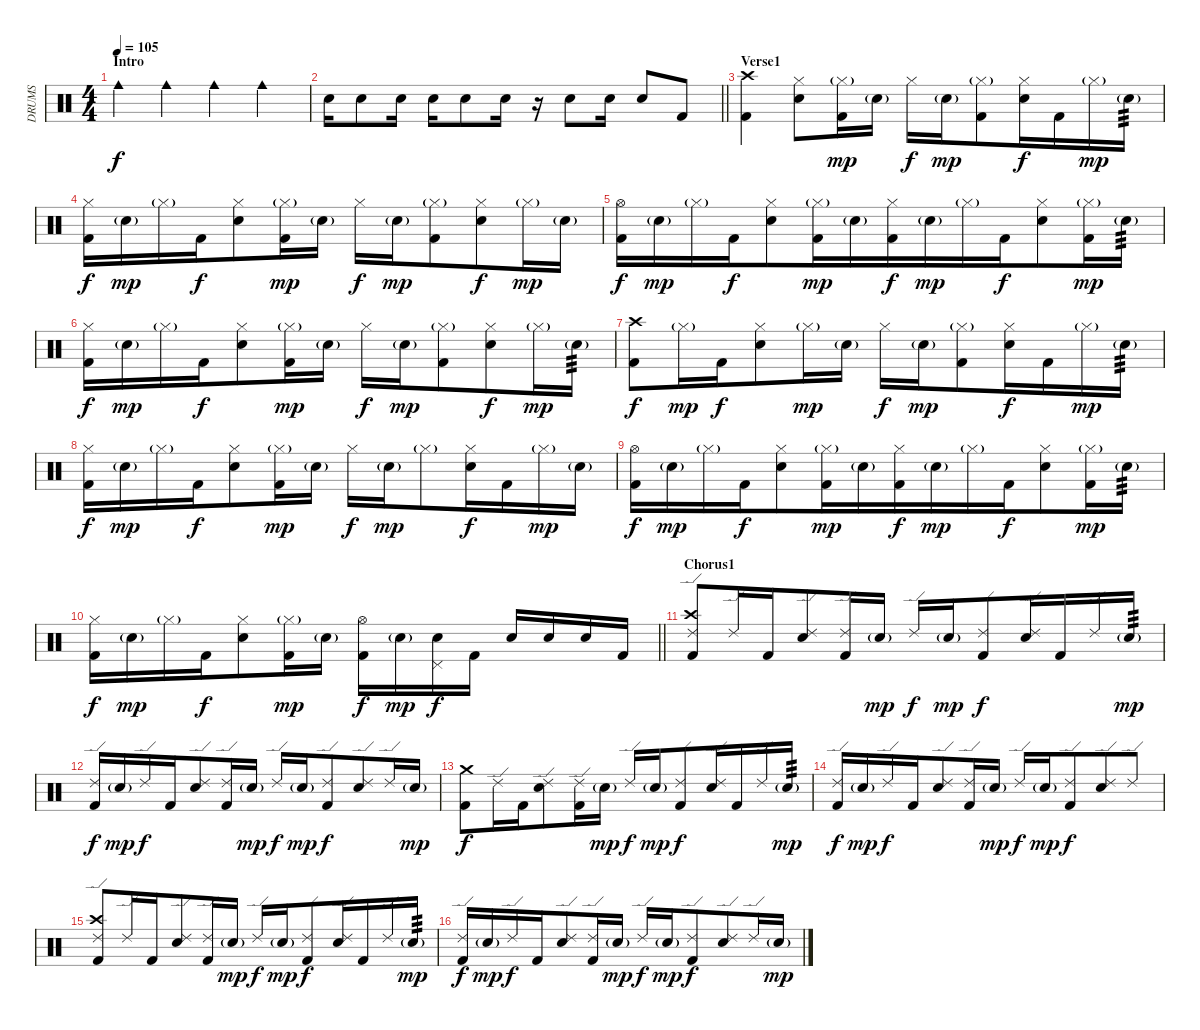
\track ("DRUMS" "DRUMS") {instrument percussion bank 148}
\staff {score}
\articulation defaults
\ts (4 4)
\section ("" "Intro")
\tempo 105
\clef neutral
\ks c "Cowbell medium (hit)".4{dy f beam merge} "Cowbell medium (hit)".4{beam merge} "Cowbell medium (hit)".4{beam merge} "Cowbell medium (hit)".4
|
\barLineRight lightlight "Electric Snare (hit)".16 "Electric Snare (hit)".8 "Electric Snare (hit)".16 "Electric Snare (hit)".16 "Electric Snare (hit)".8 "Electric Snare (hit)".16
r.16 "Electric Snare (hit)".8 "Electric Snare (hit)".16 "Electric Snare (hit)".8{beam merge} "Kick (hit) 2".8 |
\section ("" "Verse1")
("Crash high (hit)" "Kick (hit) 2").4{beam merge} ("Hi-Hat (closed)" "Electric Snare (hit)").8 ("Hi-Hat (closed)"{g} "Kick (hit) 2").16{dy mp beam merge} "Electric Snare (hit)"{g}.16 "Hi-Hat (closed)".16{dy f} "Electric Snare (hit)"{g}.16{dy mp beam merge} ("Hi-Hat (closed)"{g} "Kick (hit) 2").8{beam merge} ("Hi-Hat (closed)" "Electric Snare (hit)").16{dy f} "Kick (hit) 2".16 "Hi-Hat (closed)"{g}.16{dy mp} "Electric Snare (hit)"{g}.16{tp 3} |
("Hi-Hat (closed)" "Kick (hit) 2").16{dy f} "Electric Snare (hit)"{g}.16{dy mp} "Hi-Hat (closed)"{g}.16 "Kick (hit) 2".16{dy f beam merge} ("Hi-Hat (closed)" "Electric Snare (hit)").8 ("Hi-Hat (closed)"{g} "Kick (hit) 2").16{dy mp} "Electric Snare (hit)"{g}.16 "Hi-Hat (closed)".16{dy f beam merge} "Electric Snare (hit)"{g}.16{dy mp beam merge} ("Hi-Hat (closed)"{g} "Kick (hit) 2").8{beam merge} ("Hi-Hat (closed)" "Electric Snare (hit)").8{dy f} "Hi-Hat (closed)"{g}.16{dy mp} "Electric Snare (hit)"{g}.16 |
("Hi-Hat (open)" "Kick (hit) 2").16{dy f} "Electric Snare (hit)"{g}.16{dy mp} "Hi-Hat (closed)"{g}.16 "Kick (hit) 2".16{dy f beam merge} ("Hi-Hat (closed)" "Electric Snare (hit)").8 ("Hi-Hat (closed)"{g} "Kick (hit) 2").16{dy mp} "Electric Snare (hit)"{g}.16{beam merge} ("Hi-Hat (closed)" "Kick (hit) 2").16{dy f} "Electric Snare (hit)"{g}.16{dy mp} "Hi-Hat (closed)"{g}.16 "Kick (hit) 2".16{dy f beam merge} ("Hi-Hat (closed)" "Electric Snare (hit)").8 ("Hi-Hat (closed)"{g} "Kick (hit) 2").16{dy mp} "Electric Snare (hit)"{g}.16{tp 3} |
("Hi-Hat (closed)" "Kick (hit) 2").16{dy f} "Electric Snare (hit)"{g}.16{dy mp} "Hi-Hat (closed)"{g}.16 "Kick (hit) 2".16{dy f beam merge} ("Hi-Hat (closed)" "Electric Snare (hit)").8 ("Hi-Hat (closed)"{g} "Kick (hit) 2").16{dy mp} "Electric Snare (hit)"{g}.16 "Hi-Hat (closed)".16{dy f beam merge} "Electric Snare (hit)"{g}.16{dy mp beam merge} ("Hi-Hat (closed)"{g} "Kick (hit) 2").8{beam merge} ("Hi-Hat (closed)" "Electric Snare (hit)").8{dy f} "Hi-Hat (closed)"{g}.16{dy mp} "Electric Snare (hit)"{g}.16{tp 3} |
("Crash high (hit)" "Kick (hit) 2").8{dy f beam merge} "Hi-Hat (closed)"{g}.16{dy mp} "Kick (hit) 2".16{dy f beam merge} ("Hi-Hat (closed)" "Electric Snare (hit)").8 "Hi-Hat (closed)"{g}.16{dy mp beam merge} "Electric Snare (hit)"{g}.16 "Hi-Hat (closed)".16{dy f} "Electric Snare (hit)"{g}.16{dy mp beam merge} ("Hi-Hat (closed)"{g} "Kick (hit) 2").8{beam merge} ("Hi-Hat (closed)" "Electric Snare (hit)").16{dy f} "Kick (hit) 2".16 "Hi-Hat (closed)"{g}.16{dy mp} "Electric Snare (hit)"{g}.16{tp 3} |
("Hi-Hat (closed)" "Kick (hit) 2").16{dy f} "Electric Snare (hit)"{g}.16{dy mp} "Hi-Hat (closed)"{g}.16 "Kick (hit) 2".16{dy f beam merge} ("Hi-Hat (closed)" "Electric Snare (hit)").8 ("Hi-Hat (closed)"{g} "Kick (hit) 2").16{dy mp} "Electric Snare (hit)"{g}.16 "Hi-Hat (closed)".16{dy f beam merge} "Electric Snare (hit)"{g}.16{dy mp beam merge} "Hi-Hat (closed)"{g}.8{beam merge} ("Hi-Hat (closed)" "Electric Snare (hit)").16{dy f} "Kick (hit) 2".16 "Hi-Hat (closed)"{g}.16{dy mp} "Electric Snare (hit)"{g}.16 |
("Hi-Hat (open)" "Kick (hit) 2").16{dy f} "Electric Snare (hit)"{g}.16{dy mp} "Hi-Hat (closed)"{g}.16 "Kick (hit) 2".16{dy f beam merge} ("Hi-Hat (closed)" "Electric Snare (hit)").8 ("Hi-Hat (closed)"{g} "Kick (hit) 2").16{dy mp} "Electric Snare (hit)"{g}.16{beam merge} ("Hi-Hat (closed)" "Kick (hit) 2").16{dy f} "Electric Snare (hit)"{g}.16{dy mp} "Hi-Hat (closed)"{g}.16 "Kick (hit) 2".16{dy f beam merge} ("Hi-Hat (closed)" "Electric Snare (hit)").8 ("Hi-Hat (closed)"{g} "Kick (hit) 2").16{dy mp} "Electric Snare (hit)"{g}.16{tp 3} |
\barLineRight lightlight
("Hi-Hat (closed)" "Kick (hit) 2").16{dy f} "Electric Snare (hit)"{g}.16{dy mp} "Hi-Hat (closed)"{g}.16 "Kick (hit) 2".16{dy f beam merge} ("Hi-Hat (closed)" "Electric Snare (hit)").8 ("Hi-Hat (closed)"{g} "Kick (hit) 2").16{dy mp} "Electric Snare (hit)"{g}.16 ("Hi-Hat (open)" "Kick (hit) 2").16{dy f beam merge} "Electric Snare (hit)"{g}.16{dy mp beam merge} ("Pedal Hi-Hat (hit)" "Electric Snare (hit)").16{dy f beam merge} "Kick (hit) 2".16 "Electric Snare (hit)".16 "Electric Snare (hit)".16 "Electric Snare (hit)".16 "Kick (hit) 2".16 |
\section ("" "Chorus1")
("Ride (edge) 2" "Crash high (hit)" "Kick (hit) 2").8{beam merge} "Ride (edge) 2".16 "Kick (hit) 2".16{beam merge} ("Ride (edge) 2" "Electric Snare (hit)").8 ("Ride (edge) 2" "Kick (hit) 2").16{beam merge} "Electric Snare (hit)"{g}.16{dy mp} "Ride (edge) 2".16{dy f} "Electric Snare (hit)"{g}.16{dy mp beam merge} ("Ride (edge) 2" "Kick (hit) 2").8{dy f beam merge} ("Ride (edge) 2" "Electric Snare (hit)").16 "Kick (hit) 2".16 "Ride (edge) 2".16 "Electric Snare (hit)"{g}.16{tp 3 dy mp} |
("Ride (edge) 2" "Kick (hit) 2").16{dy f} "Electric Snare (hit)"{g}.16{dy mp} "Ride (edge) 2".16{dy f} "Kick (hit) 2".16{beam merge} ("Ride (edge) 2" "Electric Snare (hit)").8 ("Ride (edge) 2" "Kick (hit) 2").16 "Electric Snare (hit)"{g}.16{dy mp} "Ride (edge) 2".16{dy f beam merge} "Electric Snare (hit)"{g}.16{dy mp beam merge} ("Ride (edge) 2" "Kick (hit) 2").8{dy f beam merge} ("Ride (edge) 2" "Electric Snare (hit)").8 "Ride (edge) 2".16 "Electric Snare (hit)"{g}.16{dy mp} |
("Crash medium (hit)" "Kick (hit) 2").8{dy f beam merge} "Ride (edge) 2".16 "Kick (hit) 2".16{beam merge} ("Ride (edge) 2" "Electric Snare (hit)").8 ("Ride (edge) 2" "Kick (hit) 2").16{beam merge} "Electric Snare (hit)"{g}.16{dy mp} "Ride (edge) 2".16{dy f} "Electric Snare (hit)"{g}.16{dy mp beam merge} ("Ride (edge) 2" "Kick (hit) 2").8{dy f beam merge} ("Ride (edge) 2" "Electric Snare (hit)").16 "Kick (hit) 2".16 "Ride (edge) 2".16 "Electric Snare (hit)"{g}.16{tp 3 dy mp} |
("Ride (edge) 2" "Kick (hit) 2").16{dy f} "Electric Snare (hit)"{g}.16{dy mp} "Ride (edge) 2".16{dy f} "Kick (hit) 2".16{beam merge} ("Ride (edge) 2" "Electric Snare (hit)").8 ("Ride (edge) 2" "Kick (hit) 2").16 "Electric Snare (hit)"{g}.16{dy mp} "Ride (edge) 2".16{dy f beam merge} "Electric Snare (hit)"{g}.16{dy mp beam merge} ("Ride (edge) 2" "Kick (hit) 2").8{dy f beam merge} ("Ride (edge) 2" "Electric Snare (hit)").8 "Ride (edge) 2".8 |
("Ride (edge) 2" "Crash high (hit)" "Kick (hit) 2").8{beam merge} "Ride (edge) 2".16 "Kick (hit) 2".16{beam merge} ("Ride (edge) 2" "Electric Snare (hit)").8 ("Ride (edge) 2" "Kick (hit) 2").16{beam merge} "Electric Snare (hit)"{g}.16{dy mp} "Ride (edge) 2".16{dy f} "Electric Snare (hit)"{g}.16{dy mp beam merge} ("Ride (edge) 2" "Kick (hit) 2").8{dy f beam merge} ("Ride (edge) 2" "Electric Snare (hit)").16 "Kick (hit) 2".16 "Ride (edge) 2".16 "Electric Snare (hit)"{g}.16{tp 3 dy mp} |
("Ride (edge) 2" "Kick (hit) 2").16{dy f} "Electric Snare (hit)"{g}.16{dy mp} "Ride (edge) 2".16{dy f} "Kick (hit) 2".16{beam merge} ("Ride (edge) 2" "Electric Snare (hit)").8 ("Ride (edge) 2" "Kick (hit) 2").16 "Electric Snare (hit)"{g}.16{dy mp} "Ride (edge) 2".16{dy f beam merge} "Electric Snare (hit)"{g}.16{dy mp beam merge} ("Ride (edge) 2" "Kick (hit) 2").8{dy f beam merge} ("Ride (edge) 2" "Electric Snare (hit)").8 "Ride (edge) 2".16 "Electric Snare (hit)"{g}.16{dy mp}
